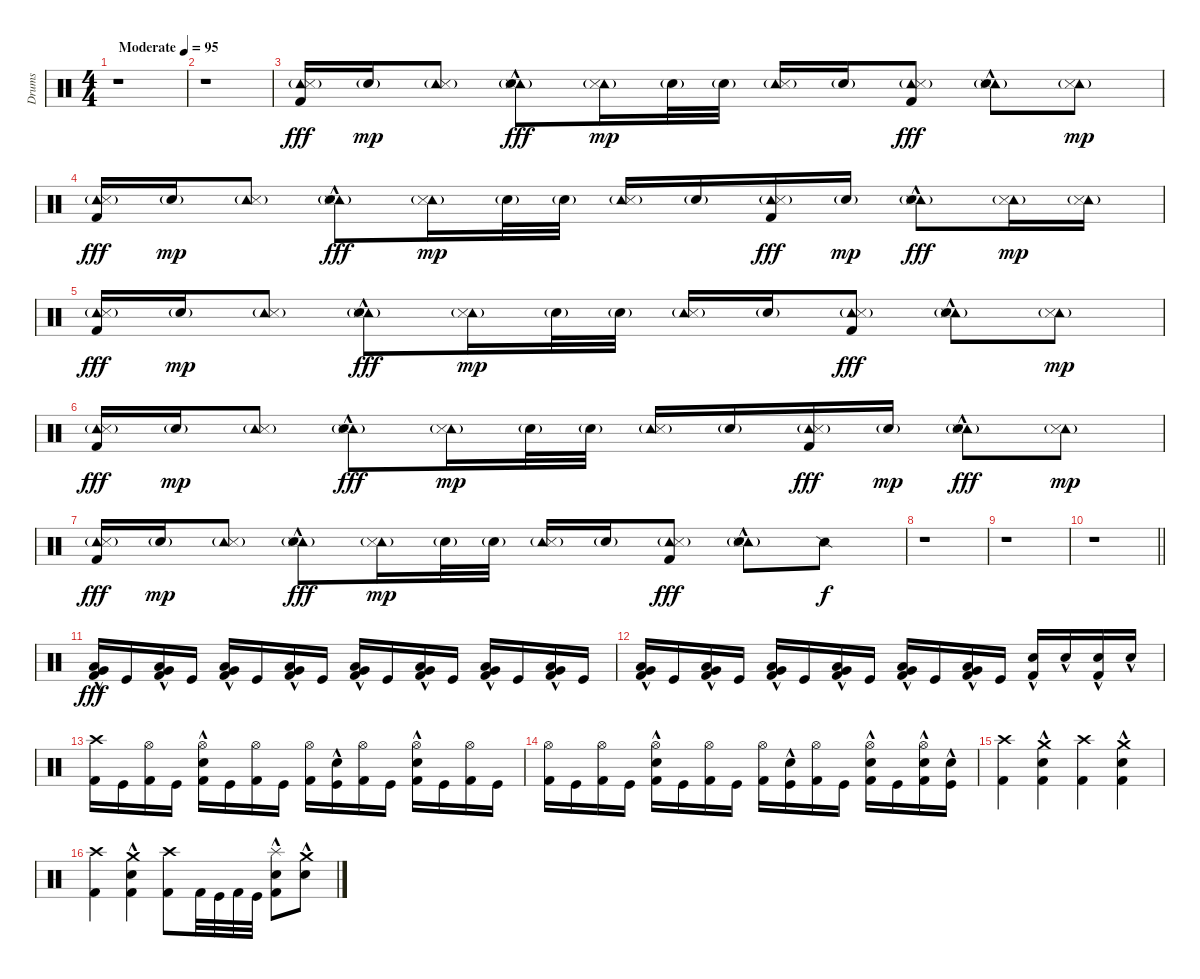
\track ("Drums" "Drums") {instrument percussion}
\staff {score}
\articulation defaults
\ts (4 4)
\tempo (95 "Moderate")
\clef neutral
\ks c
r.1{dy fff} |
r.1 |
("Tambourine (hit)"{g} "Metronome (hit)" "Kick (hit) 2").16{volume 7} "Electric Snare (hit)"{g}.16{dy mp} ("Tambourine (hit)"{g} "Metronome (hit)").8 ("Tambourine (hit)"{g} "Metronome (hit)" "Electric Snare (hit)"{hac}).8{dy fff} ("Tambourine (hit)"{g} "Metronome (hit)").16{dy mp} "Electric Snare (hit)"{g}.32 "Electric Snare (hit)"{g}.32 ("Tambourine (hit)"{g} "Metronome (hit)").16 "Electric Snare (hit)"{g}.16 ("Tambourine (hit)"{g} "Metronome (hit)" "Kick (hit) 2").8{dy fff} ("Tambourine (hit)"{g} "Metronome (hit)" "Electric Snare (hit)"{hac}).8 ("Tambourine (hit)"{g} "Metronome (hit)").8{dy mp} |
("Tambourine (hit)"{g} "Metronome (hit)" "Kick (hit) 2").16{dy fff} "Electric Snare (hit)"{g}.16{dy mp} ("Tambourine (hit)"{g} "Metronome (hit)").8 ("Tambourine (hit)"{g} "Metronome (hit)" "Electric Snare (hit)"{hac}).8{dy fff} ("Tambourine (hit)"{g} "Metronome (hit)").16{dy mp} "Electric Snare (hit)"{g}.32 "Electric Snare (hit)"{g}.32 ("Tambourine (hit)"{g} "Metronome (hit)").16 "Electric Snare (hit)"{g}.16 ("Tambourine (hit)"{g} "Metronome (hit)" "Kick (hit) 2").16{dy fff} "Electric Snare (hit)"{g}.16{dy mp} ("Tambourine (hit)"{g} "Metronome (hit)" "Electric Snare (hit)"{hac}).8{dy fff} ("Tambourine (hit)"{g} "Metronome (hit)").16{dy mp} ("Tambourine (hit)"{g} "Metronome (hit)").16 |
("Tambourine (hit)"{g} "Metronome (hit)" "Kick (hit) 2").16{dy fff} "Electric Snare (hit)"{g}.16{dy mp} ("Tambourine (hit)"{g} "Metronome (hit)").8 ("Tambourine (hit)"{g} "Metronome (hit)" "Electric Snare (hit)"{hac}).8{dy fff} ("Tambourine (hit)"{g} "Metronome (hit)").16{dy mp} "Electric Snare (hit)"{g}.32 "Electric Snare (hit)"{g}.32 ("Tambourine (hit)"{g} "Metronome (hit)").16 "Electric Snare (hit)"{g}.16 ("Tambourine (hit)"{g} "Metronome (hit)" "Kick (hit) 2").8{dy fff} ("Tambourine (hit)"{g} "Metronome (hit)" "Electric Snare (hit)"{hac}).8 ("Tambourine (hit)"{g} "Metronome (hit)").8{dy mp} |
("Tambourine (hit)"{g} "Metronome (hit)" "Kick (hit) 2").16{dy fff} "Electric Snare (hit)"{g}.16{dy mp} ("Tambourine (hit)"{g} "Metronome (hit)").8 ("Tambourine (hit)"{g} "Metronome (hit)" "Electric Snare (hit)"{hac}).8{dy fff} ("Tambourine (hit)"{g} "Metronome (hit)").16{dy mp} "Electric Snare (hit)"{g}.32 "Electric Snare (hit)"{g}.32 ("Tambourine (hit)"{g} "Metronome (hit)").16 "Electric Snare (hit)"{g}.16 ("Tambourine (hit)"{g} "Metronome (hit)" "Kick (hit) 2").16{dy fff} "Electric Snare (hit)"{g}.16{dy mp} ("Tambourine (hit)"{g} "Metronome (hit)" "Electric Snare (hit)"{hac}).8{dy fff} ("Tambourine (hit)"{g} "Metronome (hit)").8{dy mp} |
("Tambourine (hit)"{g} "Metronome (hit)" "Kick (hit) 2").16{dy fff} "Electric Snare (hit)"{g}.16{dy mp} ("Tambourine (hit)"{g} "Metronome (hit)").8 ("Tambourine (hit)"{g} "Metronome (hit)" "Electric Snare (hit)"{hac}).8{dy fff} ("Tambourine (hit)"{g} "Metronome (hit)").16{dy mp} "Electric Snare (hit)"{g}.32 "Electric Snare (hit)"{g}.32 ("Tambourine (hit)"{g} "Metronome (hit)").16 "Electric Snare (hit)"{g}.16 ("Tambourine (hit)"{g} "Metronome (hit)" "Kick (hit) 2").8{dy fff} ("Tambourine (hit)"{g} "Metronome (hit)" "Electric Snare (hit)"{hac}).8 "Snare (side stick) 2".8{dy f} |
r.1 |
r.1 |
\barLineRight lightlight
r.1 |
("Low Tom (hit)"{hac} "Very Low Tom (hit)"{hac} "Kick (hit) 2").16{dy fff volume 10} "Kick (hit)".16 ("Low Tom (hit)"{hac} "Very Low Tom (hit)"{hac} "Kick (hit) 2").16 "Kick (hit)".16 ("Low Tom (hit)"{hac} "Very Low Tom (hit)"{hac} "Kick (hit) 2").16 "Kick (hit)".16 ("Low Tom (hit)"{hac} "Very Low Tom (hit)"{hac} "Kick (hit) 2").16 "Kick (hit)".16 ("Low Tom (hit)"{hac} "Very Low Tom (hit)"{hac} "Kick (hit) 2").16 "Kick (hit)".16 ("Low Tom (hit)"{hac} "Very Low Tom (hit)"{hac} "Kick (hit) 2").16 "Kick (hit)".16 ("Low Tom (hit)"{hac} "Very Low Tom (hit)"{hac} "Kick (hit) 2").16 "Kick (hit)".16 ("Low Tom (hit)"{hac} "Very Low Tom (hit)"{hac} "Kick (hit) 2").16 "Kick (hit)".16 |
("Low Tom (hit)"{hac} "Very Low Tom (hit)"{hac} "Kick (hit) 2").16 "Kick (hit)".16 ("Low Tom (hit)"{hac} "Very Low Tom (hit)"{hac} "Kick (hit) 2").16 "Kick (hit)".16 ("Low Tom (hit)"{hac} "Very Low Tom (hit)"{hac} "Kick (hit) 2").16 "Kick (hit)".16 ("Low Tom (hit)"{hac} "Very Low Tom (hit)"{hac} "Kick (hit) 2").16 "Kick (hit)".16 ("Low Tom (hit)"{hac} "Very Low Tom (hit)"{hac} "Kick (hit) 2").16 "Kick (hit)".16 ("Low Tom (hit)"{hac} "Very Low Tom (hit)"{hac} "Kick (hit) 2").16 "Kick (hit)".16 ("Electric Snare (hit)"{hac} "Kick (hit) 2").16 "Electric Snare (hit)"{hac}.16 ("Electric Snare (hit)"{hac} "Kick (hit) 2").16 "Electric Snare (hit)"{hac}.16 |
("Crash high (hit)" "Kick (hit) 2").16 "Kick (hit)".16 ("Hi-Hat (open)" "Kick (hit) 2").16 "Kick (hit)".16 ("Hi-Hat (open)" "Electric Snare (hit)"{hac} "Kick (hit) 2").16 "Kick (hit)".16 ("Hi-Hat (open)" "Kick (hit) 2").16 "Kick (hit)".16 ("Hi-Hat (open)" "Kick (hit) 2").16 ("Electric Snare (hit)"{hac} "Kick (hit)").16 ("Hi-Hat (open)" "Kick (hit) 2").16 "Kick (hit)".16 ("Hi-Hat (open)" "Electric Snare (hit)"{hac} "Kick (hit) 2").16 "Kick (hit)".16 ("Hi-Hat (open)" "Kick (hit) 2").16 "Kick (hit)".16 |
("Hi-Hat (open)" "Kick (hit) 2").16 "Kick (hit)".16 ("Hi-Hat (open)" "Kick (hit) 2").16 "Kick (hit)".16 ("Hi-Hat (open)" "Electric Snare (hit)"{hac} "Kick (hit) 2").16 "Kick (hit)".16 ("Hi-Hat (open)" "Kick (hit) 2").16 "Kick (hit)".16 ("Hi-Hat (open)" "Kick (hit) 2").16 ("Electric Snare (hit)"{hac} "Kick (hit)").16 ("Hi-Hat (open)" "Kick (hit) 2").16 "Kick (hit)".16 ("Hi-Hat (open)" "Electric Snare (hit)"{hac} "Kick (hit) 2").16 "Kick (hit)".16 ("Hi-Hat (open)" "Electric Snare (hit)"{hac} "Kick (hit) 2").16 ("Electric Snare (hit)"{hac} "Kick (hit)").16 |
("Crash high (hit)" "Kick (hit) 2").4 ("Crash medium (hit)" "Electric Snare (hit)"{hac} "Kick (hit) 2").4 ("Crash high (hit)" "Kick (hit) 2").4 ("Crash medium (hit)" "Electric Snare (hit)"{hac} "Kick (hit) 2").4 |
("Crash high (hit)" "Kick (hit) 2").4 ("Crash medium (hit)" "Electric Snare (hit)"{hac} "Kick (hit) 2").4 ("Crash high (hit)" "Kick (hit) 2").8 "Kick (hit) 2".32 "Kick (hit)".32 "Kick (hit) 2".32 "Kick (hit)".32 ("Splash (hit)" "Electric Snare (hit)"{hac} "Kick (hit) 2").8 ("Crash medium (hit)" "Electric Snare (hit)"{hac}).8
